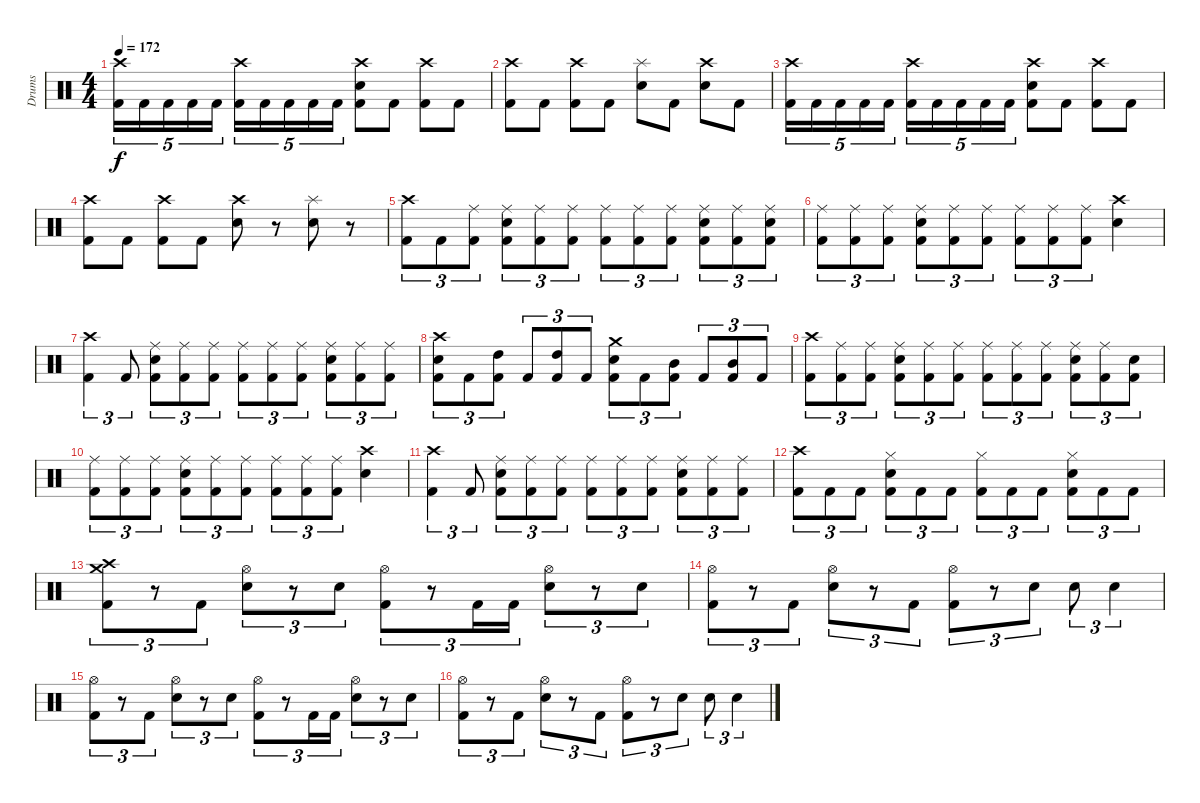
\track ("Drums" "Drums") {instrument percussion}
\staff {score}
\articulation defaults
\ts (4 4)
\tempo 172
\clef neutral
\ks c
("Crash high (hit)" "Kick (hit) 2").16{tu (5 4) dy f} "Kick (hit) 2".16{tu (5 4)} "Kick (hit) 2".16{tu (5 4)} "Kick (hit) 2".16{tu (5 4)} "Kick (hit) 2".16{tu (5 4)} ("Crash high (hit)" "Kick (hit) 2").16{tu (5 4)} "Kick (hit) 2".16{tu (5 4)} "Kick (hit) 2".16{tu (5 4)} "Kick (hit) 2".16{tu (5 4)} "Kick (hit) 2".16{tu (5 4)} ("Crash high (hit)" "Snare (hit) 2" "Kick (hit) 2").8 "Kick (hit) 2".8 ("Crash high (hit)" "Kick (hit) 2").8 "Kick (hit) 2".8 |
("Crash high (hit)" "Kick (hit) 2").8 "Kick (hit) 2".8 ("Crash high (hit)" "Kick (hit) 2").8 "Kick (hit) 2".8 ("Splash (hit)" "Snare (hit) 2").8 "Kick (hit) 2".8 ("Crash high (hit)" "Snare (hit) 2").8 "Kick (hit) 2".8 |
("Crash high (hit)" "Kick (hit) 2").16{tu (5 4)} "Kick (hit) 2".16{tu (5 4)} "Kick (hit) 2".16{tu (5 4)} "Kick (hit) 2".16{tu (5 4)} "Kick (hit) 2".16{tu (5 4)} ("Crash high (hit)" "Kick (hit) 2").16{tu (5 4)} "Kick (hit) 2".16{tu (5 4)} "Kick (hit) 2".16{tu (5 4)} "Kick (hit) 2".16{tu (5 4)} "Kick (hit) 2".16{tu (5 4)} ("Crash high (hit)" "Snare (hit) 2" "Kick (hit) 2").8 "Kick (hit) 2".8 ("Crash high (hit)" "Kick (hit) 2").8 "Kick (hit) 2".8 |
("Crash high (hit)" "Kick (hit) 2").8 "Kick (hit) 2".8 ("Crash high (hit)" "Kick (hit) 2").8 "Kick (hit) 2".8 ("Crash high (hit)" "Snare (hit) 2").8 r.8 ("Splash (hit)" "Snare (hit) 2").8 r.8 |
("Crash high (hit)" "Kick (hit) 2").8{tu (3 2)} "Kick (hit) 2".8{tu (3 2)} ("Ride (middle)" "Kick (hit) 2").8{tu (3 2)} ("Ride (middle)" "Snare (hit) 2" "Kick (hit) 2").8{tu (3 2)} ("Ride (middle)" "Kick (hit) 2").8{tu (3 2)} ("Ride (middle)" "Kick (hit) 2").8{tu (3 2)} ("Ride (middle)" "Kick (hit) 2").8{tu (3 2)} ("Ride (middle)" "Kick (hit) 2").8{tu (3 2)} ("Ride (middle)" "Kick (hit) 2").8{tu (3 2)} ("Ride (middle)" "Snare (hit) 2" "Kick (hit) 2").8{tu (3 2)} ("Ride (middle)" "Kick (hit) 2").8{tu (3 2)} ("Ride (middle)" "Snare (hit) 2" "Kick (hit) 2").8{tu (3 2)} |
("Ride (middle)" "Kick (hit) 2").8{tu (3 2)} ("Ride (middle)" "Kick (hit) 2").8{tu (3 2)} ("Ride (middle)" "Kick (hit) 2").8{tu (3 2)} ("Ride (middle)" "Snare (hit) 2" "Kick (hit) 2").8{tu (3 2)} ("Ride (middle)" "Kick (hit) 2").8{tu (3 2)} ("Ride (middle)" "Kick (hit) 2").8{tu (3 2)} ("Ride (middle)" "Kick (hit) 2").8{tu (3 2)} ("Ride (middle)" "Kick (hit) 2").8{tu (3 2)} ("Ride (middle)" "Kick (hit) 2").8{tu (3 2)} ("Crash high (hit)" "Snare (hit) 2").4 |
("Crash high (hit)" "Kick (hit) 2").4{tu (3 2)} "Kick (hit) 2".8{tu (3 2)} ("Ride (middle)" "Snare (hit) 2" "Kick (hit) 2").8{tu (3 2)} ("Ride (middle)" "Kick (hit) 2").8{tu (3 2)} ("Ride (middle)" "Kick (hit) 2").8{tu (3 2)} ("Ride (middle)" "Kick (hit) 2").8{tu (3 2)} ("Ride (middle)" "Kick (hit) 2").8{tu (3 2)} ("Ride (middle)" "Kick (hit) 2").8{tu (3 2)} ("Ride (middle)" "Snare (hit) 2" "Kick (hit) 2").8{tu (3 2)} ("Ride (middle)" "Kick (hit) 2").8{tu (3 2)} ("Ride (middle)" "Kick (hit) 2").8{tu (3 2)} |
("Crash high (hit)" "Snare (hit) 2" "Kick (hit) 2").8{tu (3 2)} "Kick (hit) 2".8{tu (3 2)} ("High Tom (hit)" "Kick (hit) 2").8{tu (3 2)} "Kick (hit) 2".8{tu (3 2)} ("High Tom (hit)" "Kick (hit) 2").8{tu (3 2)} "Kick (hit) 2".8{tu (3 2)} ("Crash medium (hit)" "Snare (hit) 2" "Kick (hit) 2").8{tu (3 2)} "Kick (hit) 2".8{tu (3 2)} ("Mid Tom (hit)" "Kick (hit) 2").8{tu (3 2)} "Kick (hit) 2".8{tu (3 2)} ("Mid Tom (hit)" "Kick (hit) 2").8{tu (3 2)} "Kick (hit) 2".8{tu (3 2)} |
("Crash high (hit)" "Kick (hit) 2").8{tu (3 2)} ("Ride (middle)" "Kick (hit) 2").8{tu (3 2)} ("Ride (middle)" "Kick (hit) 2").8{tu (3 2)} ("Ride (middle)" "Snare (hit) 2" "Kick (hit) 2").8{tu (3 2)} ("Ride (middle)" "Kick (hit) 2").8{tu (3 2)} ("Ride (middle)" "Kick (hit) 2").8{tu (3 2)} ("Ride (middle)" "Kick (hit) 2").8{tu (3 2)} ("Ride (middle)" "Kick (hit) 2").8{tu (3 2)} ("Ride (middle)" "Kick (hit) 2").8{tu (3 2)} ("Ride (middle)" "Snare (hit) 2" "Kick (hit) 2").8{tu (3 2)} ("Ride (middle)" "Kick (hit) 2").8{tu (3 2)} ("Snare (hit) 2" "Kick (hit) 2").8{tu (3 2)} |
("Ride (middle)" "Kick (hit) 2").8{tu (3 2)} ("Ride (middle)" "Kick (hit) 2").8{tu (3 2)} ("Ride (middle)" "Kick (hit) 2").8{tu (3 2)} ("Ride (middle)" "Snare (hit) 2" "Kick (hit) 2").8{tu (3 2)} ("Ride (middle)" "Kick (hit) 2").8{tu (3 2)} ("Ride (middle)" "Kick (hit) 2").8{tu (3 2)} ("Ride (middle)" "Kick (hit) 2").8{tu (3 2)} ("Ride (middle)" "Kick (hit) 2").8{tu (3 2)} ("Ride (middle)" "Kick (hit) 2").8{tu (3 2)} ("Crash high (hit)" "Snare (hit) 2").4 |
("Crash high (hit)" "Kick (hit) 2").4{tu (3 2)} "Kick (hit) 2".8{tu (3 2)} ("Ride (middle)" "Snare (hit) 2" "Kick (hit) 2").8{tu (3 2)} ("Ride (middle)" "Kick (hit) 2").8{tu (3 2)} ("Ride (middle)" "Kick (hit) 2").8{tu (3 2)} ("Ride (middle)" "Kick (hit) 2").8{tu (3 2)} ("Ride (middle)" "Kick (hit) 2").8{tu (3 2)} ("Ride (middle)" "Kick (hit) 2").8{tu (3 2)} ("Ride (middle)" "Snare (hit) 2" "Kick (hit) 2").8{tu (3 2)} ("Ride (middle)" "Kick (hit) 2").8{tu (3 2)} ("Ride (middle)" "Kick (hit) 2").8{tu (3 2)} |
("Crash high (hit)" "Kick (hit) 2").8{tu (3 2)} "Kick (hit) 2".8{tu (3 2)} "Kick (hit) 2".8{tu (3 2)} ("Hi-Hat (closed)" "Snare (hit) 2" "Kick (hit) 2").8{tu (3 2)} "Kick (hit) 2".8{tu (3 2)} "Kick (hit) 2".8{tu (3 2)} ("Hi-Hat (closed)" "Kick (hit) 2").8{tu (3 2)} "Kick (hit) 2".8{tu (3 2)} "Kick (hit) 2".8{tu (3 2)} ("Hi-Hat (closed)" "Snare (hit) 2" "Kick (hit) 2").8{tu (3 2)} "Kick (hit) 2".8{tu (3 2)} "Kick (hit) 2".8{tu (3 2)} |
("Crash medium (hit)" "Crash high (hit)" "Kick (hit) 2").8{tu (3 2)} r.8{tu (3 2)} "Kick (hit) 2".8{tu (3 2)} ("Hi-Hat (open)" "Snare (hit) 2").8{tu (3 2)} r.8{tu (3 2)} "Snare (hit) 2".8{tu (3 2)} ("Hi-Hat (open)" "Kick (hit) 2").8{tu (3 2)} r.8{tu (3 2)} "Kick (hit) 2".16{tu (3 2)} "Kick (hit) 2".16{tu (3 2)} ("Hi-Hat (open)" "Snare (hit) 2").8{tu (3 2)} r.8{tu (3 2)} "Snare (hit) 2".8{tu (3 2)} |
("Hi-Hat (open)" "Kick (hit) 2").8{tu (3 2)} r.8{tu (3 2)} "Kick (hit) 2".8{tu (3 2)} ("Hi-Hat (open)" "Snare (hit) 2").8{tu (3 2)} r.8{tu (3 2)} "Kick (hit) 2".8{tu (3 2)} ("Hi-Hat (open)" "Kick (hit) 2").8{tu (3 2)} r.8{tu (3 2)} "Snare (hit) 2".8{tu (3 2)} "Snare (hit) 2".8{tu (3 2)} "Snare (hit) 2".4{tu (3 2)} |
("Hi-Hat (open)" "Kick (hit) 2").8{tu (3 2)} r.8{tu (3 2)} "Kick (hit) 2".8{tu (3 2)} ("Hi-Hat (open)" "Snare (hit) 2").8{tu (3 2)} r.8{tu (3 2)} "Snare (hit) 2".8{tu (3 2)} ("Hi-Hat (open)" "Kick (hit) 2").8{tu (3 2)} r.8{tu (3 2)} "Kick (hit) 2".16{tu (3 2)} "Kick (hit) 2".16{tu (3 2)} ("Hi-Hat (open)" "Snare (hit) 2").8{tu (3 2)} r.8{tu (3 2)} "Snare (hit) 2".8{tu (3 2)} |
("Hi-Hat (open)" "Kick (hit) 2").8{tu (3 2)} r.8{tu (3 2)} "Kick (hit) 2".8{tu (3 2)} ("Hi-Hat (open)" "Snare (hit) 2").8{tu (3 2)} r.8{tu (3 2)} "Kick (hit) 2".8{tu (3 2)} ("Hi-Hat (open)" "Kick (hit) 2").8{tu (3 2)} r.8{tu (3 2)} "Snare (hit) 2".8{tu (3 2)} "Snare (hit) 2".8{tu (3 2)} "Snare (hit) 2".4{tu (3 2)}
